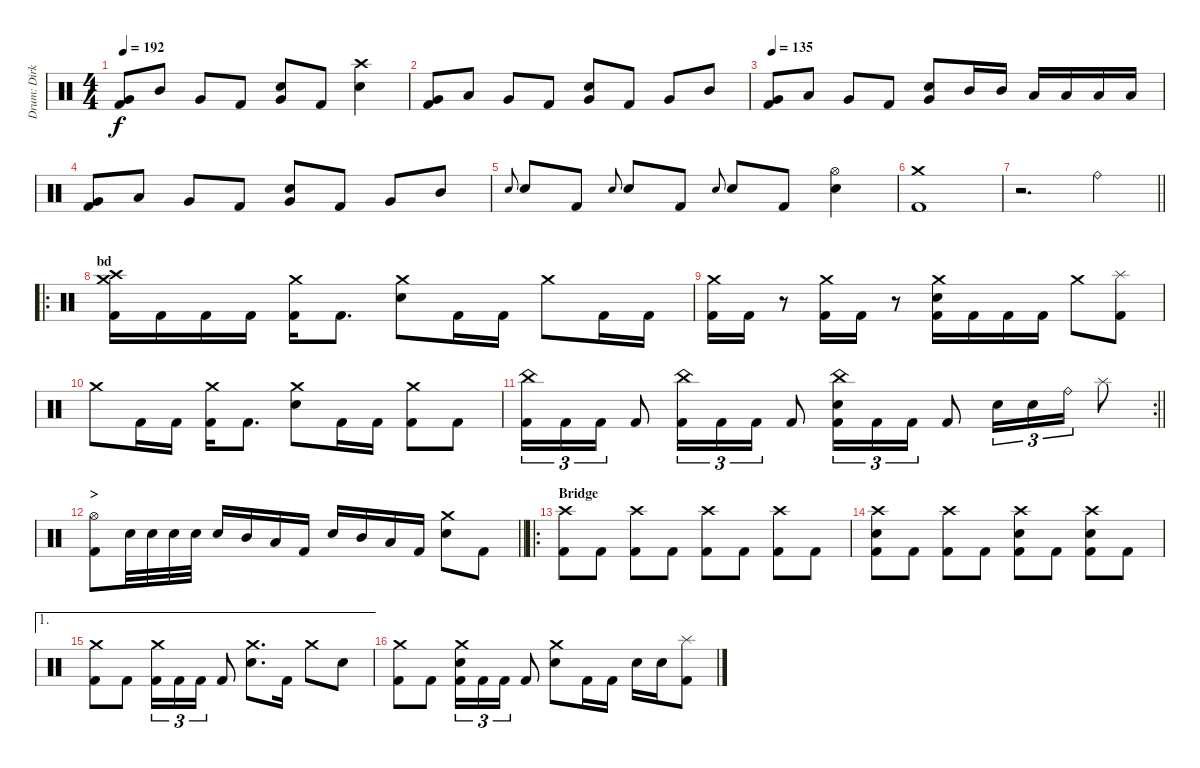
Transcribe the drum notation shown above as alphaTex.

\track ("Drum: Dirk" "Drum: Dirk") {instrument percussion}
\staff {score}
\articulation defaults
\ts (4 4)
\tempo 192
\clef neutral
\ks c
("Very Low Tom (hit)" "Kick (hit) 2").8{dy f} "Mid Tom (hit)".8 "Very Low Tom (hit)".8 "Kick (hit) 2".8 ("Electric Snare (hit)" "Very Low Tom (hit)").8 "Kick (hit) 2".8 ("Crash high (hit)" "Electric Snare (hit)").4 |
("Very Low Tom (hit)" "Kick (hit) 2").8 "Low Tom (hit)".8 "Very Low Tom (hit)".8 "Kick (hit) 2".8 ("Electric Snare (hit)" "Very Low Tom (hit)").8 "Kick (hit) 2".8 "Very Low Tom (hit)".8 "Mid Tom (hit)".8 |
\tempo 135
("Very Low Tom (hit)" "Kick (hit) 2").8 "Low Tom (hit)".8 "Very Low Tom (hit)".8 "Kick (hit) 2".8 ("Electric Snare (hit)" "Very Low Tom (hit)").8 "Mid Tom (hit)".16 "Mid Tom (hit)".16 "Low Tom (hit)".16 "Low Tom (hit)".16 "Low Tom (hit)".16 "Low Tom (hit)".16 |
("Very Low Tom (hit)" "Kick (hit) 2").8 "Low Tom (hit)".8 "Very Low Tom (hit)".8 "Kick (hit) 2".8 ("Electric Snare (hit)" "Very Low Tom (hit)").8 "Kick (hit) 2".8 "Very Low Tom (hit)".8 "Mid Tom (hit)".8 |
"Electric Snare (hit)".8{gr onbeat} "Electric Snare (hit)".8 "Kick (hit) 2".8 "Electric Snare (hit)".8{gr onbeat} "Electric Snare (hit)".8 "Kick (hit) 2".8 "Electric Snare (hit)".8{gr onbeat} "Electric Snare (hit)".8 "Kick (hit) 2".8 ("Hi-Hat (open)" "Electric Snare (hit)").4 |
("Crash medium (hit)" "Kick (hit) 2").1 |
\barLineRight lightlight
r.2{d} "Ride (bell)".4 |
\ro
\section ("" "bd")
("Crash high (hit)" "Crash medium (hit)" "Kick (hit) 2").16 "Kick (hit) 2".16 "Kick (hit) 2".16 "Kick (hit) 2".16 ("Crash medium (hit)" "Kick (hit) 2").16 "Kick (hit) 2".8{d} ("Crash medium (hit)" "Electric Snare (hit)").8 "Kick (hit) 2".16 "Kick (hit) 2".16 "Crash medium (hit)".8 "Kick (hit) 2".16 "Kick (hit) 2".16 |
("Crash medium (hit)" "Kick (hit) 2").16 "Kick (hit) 2".16 r.8 ("Crash medium (hit)" "Kick (hit) 2").16 "Kick (hit) 2".16 r.8 ("Crash medium (hit)" "Electric Snare (hit)" "Kick (hit) 2").16 "Kick (hit) 2".16 "Kick (hit) 2".16 "Kick (hit) 2".16 "Crash medium (hit)".8 ("Splash (hit)" "Kick (hit) 2").8 |
"Crash medium (hit)".8 "Kick (hit) 2".16 "Kick (hit) 2".16 ("Crash medium (hit)" "Kick (hit) 2").16 "Kick (hit) 2".8{d} ("Crash medium (hit)" "Electric Snare (hit)").8 "Kick (hit) 2".16 "Kick (hit) 2".16 ("Crash medium (hit)" "Kick (hit) 2").8 "Kick (hit) 2".8 |
\rc 2
\barLineRight lightlight
("China (hit)" "Kick (hit) 2").16{tu (3 2)} "Kick (hit) 2".16{tu (3 2)} "Kick (hit) 2".16{tu (3 2)} "Kick (hit) 2".8 ("China (hit)" "Kick (hit) 2").16{tu (3 2)} "Kick (hit) 2".16{tu (3 2)} "Kick (hit) 2".16{tu (3 2)} "Kick (hit) 2".8 ("China (hit)" "Electric Snare (hit)" "Kick (hit) 2").16{tu (3 2)} "Kick (hit) 2".16{tu (3 2)} "Kick (hit) 2".16{tu (3 2)} "Kick (hit) 2".8 "Electric Snare (hit)".16{tu (3 2)} "Electric Snare (hit)".16{tu (3 2)} "Ride (bell)".16{tu (3 2)} "Splash (hit)".8 |
\section ("" ">")
\barLineRight lightlight
("Hi-Hat (open)" "Kick (hit) 2").8 "Electric Snare (hit)".32 "Electric Snare (hit)".32 "Electric Snare (hit)".32 "Electric Snare (hit)".32 "Electric Snare (hit)".16 "Mid Tom (hit)".16 "Low Tom (hit)".16 "Kick (hit) 2".16 "Electric Snare (hit)".16 "Mid Tom (hit)".16 "Low Tom (hit)".16 "Kick (hit) 2".16 ("Crash medium (hit)" "Electric Snare (hit)").8 "Kick (hit) 2".8 |
\ro
\section ("" "Bridge")
("Crash high (hit)" "Kick (hit) 2").8 "Kick (hit) 2".8 ("Crash high (hit)" "Kick (hit) 2").8 "Kick (hit) 2".8 ("Crash high (hit)" "Kick (hit) 2").8 "Kick (hit) 2".8 ("Crash high (hit)" "Kick (hit) 2").8 "Kick (hit) 2".8 |
("Crash high (hit)" "Electric Snare (hit)" "Kick (hit) 2").8 "Kick (hit) 2".8 ("Crash high (hit)" "Kick (hit) 2").8 "Kick (hit) 2".8 ("Crash high (hit)" "Electric Snare (hit)" "Kick (hit) 2").8 "Kick (hit) 2".8 ("Crash high (hit)" "Electric Snare (hit)" "Kick (hit) 2").8 "Kick (hit) 2".8 |
\ae 1
("Crash medium (hit)" "Kick (hit) 2").8 "Kick (hit) 2".8 ("Crash medium (hit)" "Kick (hit) 2").16{tu (3 2)} "Kick (hit) 2".16{tu (3 2)} "Kick (hit) 2".16{tu (3 2)} "Kick (hit) 2".8 ("Crash medium (hit)" "Electric Snare (hit)").8{d} "Kick (hit) 2".16 "Crash medium (hit)".8 "Electric Snare (hit)".8 |
("Crash medium (hit)" "Kick (hit) 2").8 "Kick (hit) 2".8 ("Crash medium (hit)" "Electric Snare (hit)" "Kick (hit) 2").16{tu (3 2)} "Kick (hit) 2".16{tu (3 2)} "Kick (hit) 2".16{tu (3 2)} "Kick (hit) 2".8 ("Crash medium (hit)" "Electric Snare (hit)").8 "Kick (hit) 2".16 "Kick (hit) 2".16 "Electric Snare (hit)".16 "Electric Snare (hit)".16 ("Splash (hit)" "Kick (hit) 2").8
